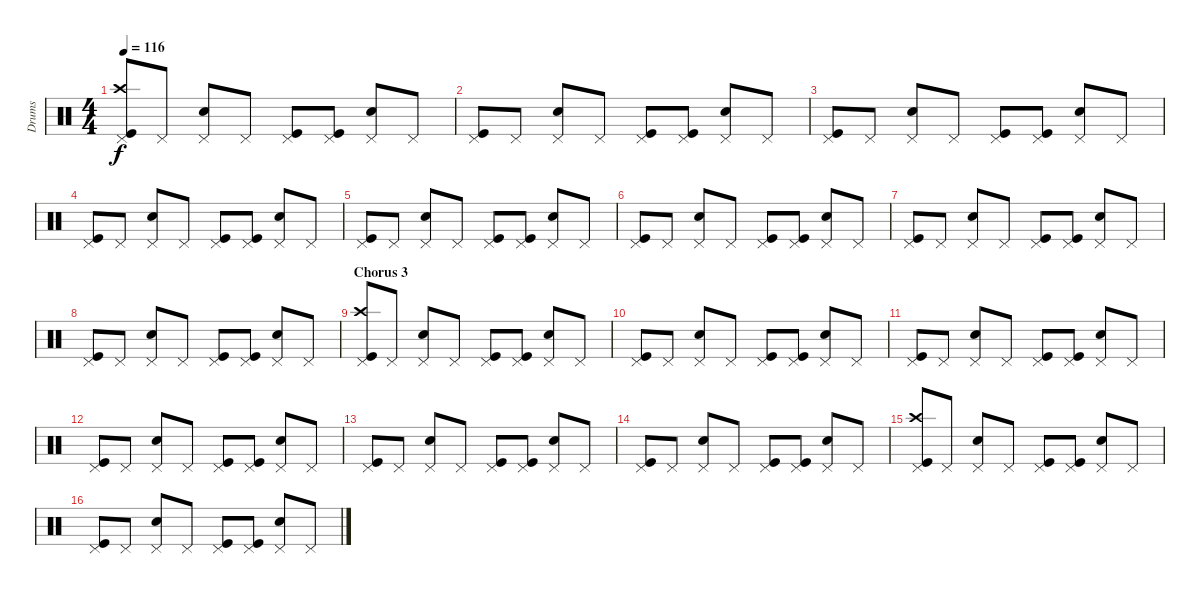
\track ("Drums" "Drums") {instrument percussion}
\staff {score}
\articulation defaults
\ts (4 4)
\tempo 116
\clef neutral
\ks c
("Pedal Hi-Hat (hit)" "Crash high (hit)" "Kick (hit)").8{dy f} "Pedal Hi-Hat (hit)".8 ("Pedal Hi-Hat (hit)" "Snare (hit) 2").8 "Pedal Hi-Hat (hit)".8 ("Pedal Hi-Hat (hit)" "Kick (hit)").8 ("Pedal Hi-Hat (hit)" "Kick (hit)").8 ("Pedal Hi-Hat (hit)" "Snare (hit) 2").8 "Pedal Hi-Hat (hit)".8 |
("Pedal Hi-Hat (hit)" "Kick (hit)").8 "Pedal Hi-Hat (hit)".8 ("Pedal Hi-Hat (hit)" "Snare (hit) 2").8 "Pedal Hi-Hat (hit)".8 ("Pedal Hi-Hat (hit)" "Kick (hit)").8 ("Pedal Hi-Hat (hit)" "Kick (hit)").8 ("Pedal Hi-Hat (hit)" "Snare (hit) 2").8 "Pedal Hi-Hat (hit)".8 |
("Pedal Hi-Hat (hit)" "Kick (hit)").8 "Pedal Hi-Hat (hit)".8 ("Pedal Hi-Hat (hit)" "Snare (hit) 2").8 "Pedal Hi-Hat (hit)".8 ("Pedal Hi-Hat (hit)" "Kick (hit)").8 ("Pedal Hi-Hat (hit)" "Kick (hit)").8 ("Pedal Hi-Hat (hit)" "Snare (hit) 2").8 "Pedal Hi-Hat (hit)".8 |
("Pedal Hi-Hat (hit)" "Kick (hit)").8 "Pedal Hi-Hat (hit)".8 ("Pedal Hi-Hat (hit)" "Snare (hit) 2").8 "Pedal Hi-Hat (hit)".8 ("Pedal Hi-Hat (hit)" "Kick (hit)").8 ("Pedal Hi-Hat (hit)" "Kick (hit)").8 ("Pedal Hi-Hat (hit)" "Snare (hit) 2").8 "Pedal Hi-Hat (hit)".8 |
("Pedal Hi-Hat (hit)" "Kick (hit)").8 "Pedal Hi-Hat (hit)".8 ("Pedal Hi-Hat (hit)" "Snare (hit) 2").8 "Pedal Hi-Hat (hit)".8 ("Pedal Hi-Hat (hit)" "Kick (hit)").8 ("Pedal Hi-Hat (hit)" "Kick (hit)").8 ("Pedal Hi-Hat (hit)" "Snare (hit) 2").8 "Pedal Hi-Hat (hit)".8 |
("Pedal Hi-Hat (hit)" "Kick (hit)").8 "Pedal Hi-Hat (hit)".8 ("Pedal Hi-Hat (hit)" "Snare (hit) 2").8 "Pedal Hi-Hat (hit)".8 ("Pedal Hi-Hat (hit)" "Kick (hit)").8 ("Pedal Hi-Hat (hit)" "Kick (hit)").8 ("Pedal Hi-Hat (hit)" "Snare (hit) 2").8 "Pedal Hi-Hat (hit)".8 |
("Pedal Hi-Hat (hit)" "Kick (hit)").8 "Pedal Hi-Hat (hit)".8 ("Pedal Hi-Hat (hit)" "Snare (hit) 2").8 "Pedal Hi-Hat (hit)".8 ("Pedal Hi-Hat (hit)" "Kick (hit)").8 ("Pedal Hi-Hat (hit)" "Kick (hit)").8 ("Pedal Hi-Hat (hit)" "Snare (hit) 2").8 "Pedal Hi-Hat (hit)".8 |
("Pedal Hi-Hat (hit)" "Kick (hit)").8 "Pedal Hi-Hat (hit)".8 ("Pedal Hi-Hat (hit)" "Snare (hit) 2").8 "Pedal Hi-Hat (hit)".8 ("Pedal Hi-Hat (hit)" "Kick (hit)").8 ("Pedal Hi-Hat (hit)" "Kick (hit)").8 ("Pedal Hi-Hat (hit)" "Snare (hit) 2").8 "Pedal Hi-Hat (hit)".8 |
\section ("" "Chorus 3")
("Pedal Hi-Hat (hit)" "Crash high (hit)" "Kick (hit)").8 "Pedal Hi-Hat (hit)".8 ("Pedal Hi-Hat (hit)" "Snare (hit) 2").8 "Pedal Hi-Hat (hit)".8 ("Pedal Hi-Hat (hit)" "Kick (hit)").8 ("Pedal Hi-Hat (hit)" "Kick (hit)").8 ("Pedal Hi-Hat (hit)" "Snare (hit) 2").8 "Pedal Hi-Hat (hit)".8 |
("Pedal Hi-Hat (hit)" "Kick (hit)").8 "Pedal Hi-Hat (hit)".8 ("Pedal Hi-Hat (hit)" "Snare (hit) 2").8 "Pedal Hi-Hat (hit)".8 ("Pedal Hi-Hat (hit)" "Kick (hit)").8 ("Pedal Hi-Hat (hit)" "Kick (hit)").8 ("Pedal Hi-Hat (hit)" "Snare (hit) 2").8 "Pedal Hi-Hat (hit)".8 |
("Pedal Hi-Hat (hit)" "Kick (hit)").8 "Pedal Hi-Hat (hit)".8 ("Pedal Hi-Hat (hit)" "Snare (hit) 2").8 "Pedal Hi-Hat (hit)".8 ("Pedal Hi-Hat (hit)" "Kick (hit)").8 ("Pedal Hi-Hat (hit)" "Kick (hit)").8 ("Pedal Hi-Hat (hit)" "Snare (hit) 2").8 "Pedal Hi-Hat (hit)".8 |
("Pedal Hi-Hat (hit)" "Kick (hit)").8 "Pedal Hi-Hat (hit)".8 ("Pedal Hi-Hat (hit)" "Snare (hit) 2").8 "Pedal Hi-Hat (hit)".8 ("Pedal Hi-Hat (hit)" "Kick (hit)").8 ("Pedal Hi-Hat (hit)" "Kick (hit)").8 ("Pedal Hi-Hat (hit)" "Snare (hit) 2").8 "Pedal Hi-Hat (hit)".8 |
("Pedal Hi-Hat (hit)" "Kick (hit)").8 "Pedal Hi-Hat (hit)".8 ("Pedal Hi-Hat (hit)" "Snare (hit) 2").8 "Pedal Hi-Hat (hit)".8 ("Pedal Hi-Hat (hit)" "Kick (hit)").8 ("Pedal Hi-Hat (hit)" "Kick (hit)").8 ("Pedal Hi-Hat (hit)" "Snare (hit) 2").8 "Pedal Hi-Hat (hit)".8 |
("Pedal Hi-Hat (hit)" "Kick (hit)").8 "Pedal Hi-Hat (hit)".8 ("Pedal Hi-Hat (hit)" "Snare (hit) 2").8 "Pedal Hi-Hat (hit)".8 ("Pedal Hi-Hat (hit)" "Kick (hit)").8 ("Pedal Hi-Hat (hit)" "Kick (hit)").8 ("Pedal Hi-Hat (hit)" "Snare (hit) 2").8 "Pedal Hi-Hat (hit)".8 |
("Pedal Hi-Hat (hit)" "Crash high (hit)" "Kick (hit)").8 "Pedal Hi-Hat (hit)".8 ("Pedal Hi-Hat (hit)" "Snare (hit) 2").8 "Pedal Hi-Hat (hit)".8 ("Pedal Hi-Hat (hit)" "Kick (hit)").8 ("Pedal Hi-Hat (hit)" "Kick (hit)").8 ("Pedal Hi-Hat (hit)" "Snare (hit) 2").8 "Pedal Hi-Hat (hit)".8 |
("Pedal Hi-Hat (hit)" "Kick (hit)").8 "Pedal Hi-Hat (hit)".8 ("Pedal Hi-Hat (hit)" "Snare (hit) 2").8 "Pedal Hi-Hat (hit)".8 ("Pedal Hi-Hat (hit)" "Kick (hit)").8 ("Pedal Hi-Hat (hit)" "Kick (hit)").8 ("Pedal Hi-Hat (hit)" "Snare (hit) 2").8 "Pedal Hi-Hat (hit)".8
